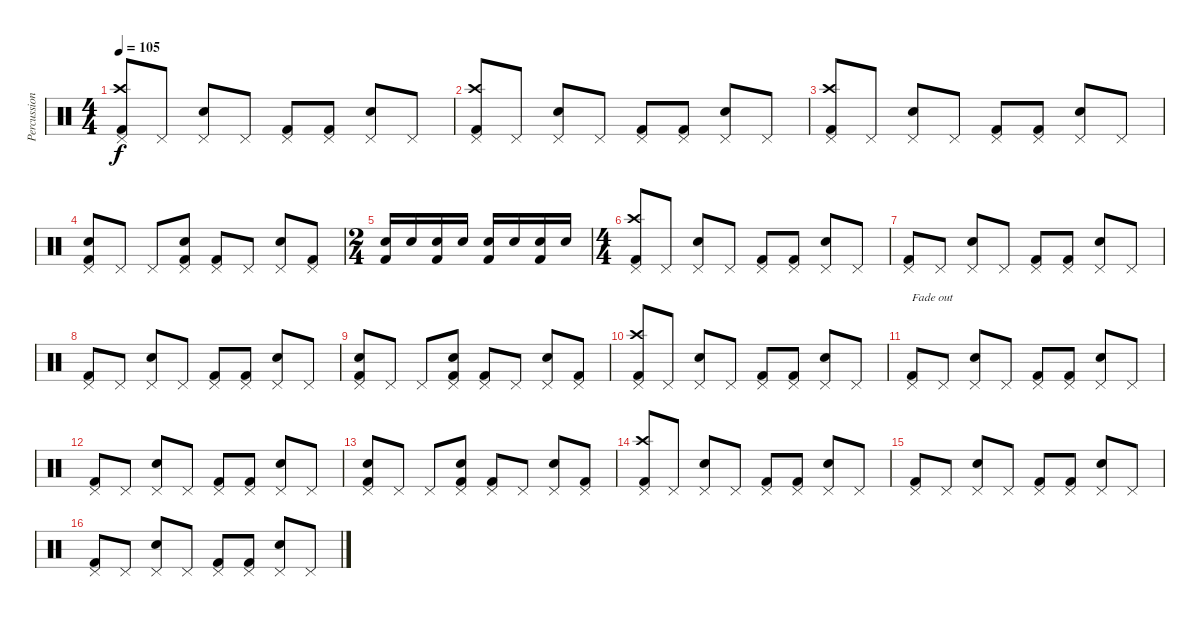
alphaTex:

\track ("Percussion" "Percussion") {instrument percussion}
\staff {score}
\articulation defaults
\ts (4 4)
\tempo 105
\clef neutral
\ks c
("Pedal Hi-Hat (hit)" "Crash high (hit)" "Kick (hit) 2").8{dy f} "Pedal Hi-Hat (hit)".8 ("Pedal Hi-Hat (hit)" "Snare (hit) 2").8 "Pedal Hi-Hat (hit)".8 ("Pedal Hi-Hat (hit)" "Kick (hit) 2").8 ("Pedal Hi-Hat (hit)" "Kick (hit) 2").8 ("Pedal Hi-Hat (hit)" "Snare (hit) 2").8 "Pedal Hi-Hat (hit)".8 |
("Pedal Hi-Hat (hit)" "Crash high (hit)" "Kick (hit) 2").8 "Pedal Hi-Hat (hit)".8 ("Pedal Hi-Hat (hit)" "Snare (hit) 2").8 "Pedal Hi-Hat (hit)".8 ("Pedal Hi-Hat (hit)" "Kick (hit) 2").8 ("Pedal Hi-Hat (hit)" "Kick (hit) 2").8 ("Pedal Hi-Hat (hit)" "Snare (hit) 2").8 "Pedal Hi-Hat (hit)".8 |
("Pedal Hi-Hat (hit)" "Crash high (hit)" "Kick (hit) 2").8 "Pedal Hi-Hat (hit)".8 ("Pedal Hi-Hat (hit)" "Snare (hit) 2").8 "Pedal Hi-Hat (hit)".8 ("Pedal Hi-Hat (hit)" "Kick (hit) 2").8 ("Pedal Hi-Hat (hit)" "Kick (hit) 2").8 ("Pedal Hi-Hat (hit)" "Snare (hit) 2").8 "Pedal Hi-Hat (hit)".8 |
("Pedal Hi-Hat (hit)" "Snare (hit) 2" "Kick (hit) 2").8 "Pedal Hi-Hat (hit)".8 "Pedal Hi-Hat (hit)".8 ("Pedal Hi-Hat (hit)" "Snare (hit) 2" "Kick (hit) 2").8 ("Pedal Hi-Hat (hit)" "Kick (hit) 2").8 "Pedal Hi-Hat (hit)".8 ("Pedal Hi-Hat (hit)" "Snare (hit) 2").8 ("Pedal Hi-Hat (hit)" "Kick (hit) 2").8 |
\ts (2 4)
("Snare (hit) 2" "Kick (hit) 2").16 "Snare (hit) 2".16 ("Snare (hit) 2" "Kick (hit) 2").16 "Snare (hit) 2".16 ("Snare (hit) 2" "Kick (hit) 2").16 "Snare (hit) 2".16 ("Snare (hit) 2" "Kick (hit) 2").16 "Snare (hit) 2".16 |
\ts (4 4)
("Pedal Hi-Hat (hit)" "Crash high (hit)" "Kick (hit) 2").8 "Pedal Hi-Hat (hit)".8 ("Pedal Hi-Hat (hit)" "Snare (hit) 2").8 "Pedal Hi-Hat (hit)".8 ("Pedal Hi-Hat (hit)" "Kick (hit) 2").8 ("Pedal Hi-Hat (hit)" "Kick (hit) 2").8 ("Pedal Hi-Hat (hit)" "Snare (hit) 2").8 "Pedal Hi-Hat (hit)".8 |
("Pedal Hi-Hat (hit)" "Kick (hit) 2").8 "Pedal Hi-Hat (hit)".8 ("Pedal Hi-Hat (hit)" "Snare (hit) 2").8 "Pedal Hi-Hat (hit)".8 ("Pedal Hi-Hat (hit)" "Kick (hit) 2").8 ("Pedal Hi-Hat (hit)" "Kick (hit) 2").8 ("Pedal Hi-Hat (hit)" "Snare (hit) 2").8 "Pedal Hi-Hat (hit)".8 |
("Pedal Hi-Hat (hit)" "Kick (hit) 2").8 "Pedal Hi-Hat (hit)".8 ("Pedal Hi-Hat (hit)" "Snare (hit) 2").8 "Pedal Hi-Hat (hit)".8 ("Pedal Hi-Hat (hit)" "Kick (hit) 2").8 ("Pedal Hi-Hat (hit)" "Kick (hit) 2").8 ("Pedal Hi-Hat (hit)" "Snare (hit) 2").8 "Pedal Hi-Hat (hit)".8 |
("Pedal Hi-Hat (hit)" "Snare (hit) 2" "Kick (hit) 2").8 "Pedal Hi-Hat (hit)".8 "Pedal Hi-Hat (hit)".8 ("Pedal Hi-Hat (hit)" "Snare (hit) 2" "Kick (hit) 2").8 ("Pedal Hi-Hat (hit)" "Kick (hit) 2").8 "Pedal Hi-Hat (hit)".8 ("Pedal Hi-Hat (hit)" "Snare (hit) 2").8 ("Pedal Hi-Hat (hit)" "Kick (hit) 2").8 |
("Pedal Hi-Hat (hit)" "Crash high (hit)" "Kick (hit) 2").8 "Pedal Hi-Hat (hit)".8 ("Pedal Hi-Hat (hit)" "Snare (hit) 2").8 "Pedal Hi-Hat (hit)".8 ("Pedal Hi-Hat (hit)" "Kick (hit) 2").8 ("Pedal Hi-Hat (hit)" "Kick (hit) 2").8 ("Pedal Hi-Hat (hit)" "Snare (hit) 2").8 "Pedal Hi-Hat (hit)".8 |
("Pedal Hi-Hat (hit)" "Kick (hit) 2").8{txt "Fade out" volume 13} "Pedal Hi-Hat (hit)".8 ("Pedal Hi-Hat (hit)" "Snare (hit) 2").8 "Pedal Hi-Hat (hit)".8 ("Pedal Hi-Hat (hit)" "Kick (hit) 2").8 ("Pedal Hi-Hat (hit)" "Kick (hit) 2").8 ("Pedal Hi-Hat (hit)" "Snare (hit) 2").8 "Pedal Hi-Hat (hit)".8 |
("Pedal Hi-Hat (hit)" "Kick (hit) 2").8{volume 12} "Pedal Hi-Hat (hit)".8 ("Pedal Hi-Hat (hit)" "Snare (hit) 2").8 "Pedal Hi-Hat (hit)".8 ("Pedal Hi-Hat (hit)" "Kick (hit) 2").8 ("Pedal Hi-Hat (hit)" "Kick (hit) 2").8 ("Pedal Hi-Hat (hit)" "Snare (hit) 2").8 "Pedal Hi-Hat (hit)".8 |
("Pedal Hi-Hat (hit)" "Snare (hit) 2" "Kick (hit) 2").8{volume 10} "Pedal Hi-Hat (hit)".8 "Pedal Hi-Hat (hit)".8 ("Pedal Hi-Hat (hit)" "Snare (hit) 2" "Kick (hit) 2").8 ("Pedal Hi-Hat (hit)" "Kick (hit) 2").8 "Pedal Hi-Hat (hit)".8 ("Pedal Hi-Hat (hit)" "Snare (hit) 2").8 ("Pedal Hi-Hat (hit)" "Kick (hit) 2").8 |
("Pedal Hi-Hat (hit)" "Crash high (hit)" "Kick (hit) 2").8{volume 9} "Pedal Hi-Hat (hit)".8 ("Pedal Hi-Hat (hit)" "Snare (hit) 2").8 "Pedal Hi-Hat (hit)".8 ("Pedal Hi-Hat (hit)" "Kick (hit) 2").8 ("Pedal Hi-Hat (hit)" "Kick (hit) 2").8 ("Pedal Hi-Hat (hit)" "Snare (hit) 2").8 "Pedal Hi-Hat (hit)".8 |
("Pedal Hi-Hat (hit)" "Kick (hit) 2").8{volume 7} "Pedal Hi-Hat (hit)".8 ("Pedal Hi-Hat (hit)" "Snare (hit) 2").8 "Pedal Hi-Hat (hit)".8 ("Pedal Hi-Hat (hit)" "Kick (hit) 2").8 ("Pedal Hi-Hat (hit)" "Kick (hit) 2").8 ("Pedal Hi-Hat (hit)" "Snare (hit) 2").8 "Pedal Hi-Hat (hit)".8 |
("Pedal Hi-Hat (hit)" "Kick (hit) 2").8{volume 5} "Pedal Hi-Hat (hit)".8 ("Pedal Hi-Hat (hit)" "Snare (hit) 2").8 "Pedal Hi-Hat (hit)".8 ("Pedal Hi-Hat (hit)" "Kick (hit) 2").8 ("Pedal Hi-Hat (hit)" "Kick (hit) 2").8 ("Pedal Hi-Hat (hit)" "Snare (hit) 2").8 "Pedal Hi-Hat (hit)".8
